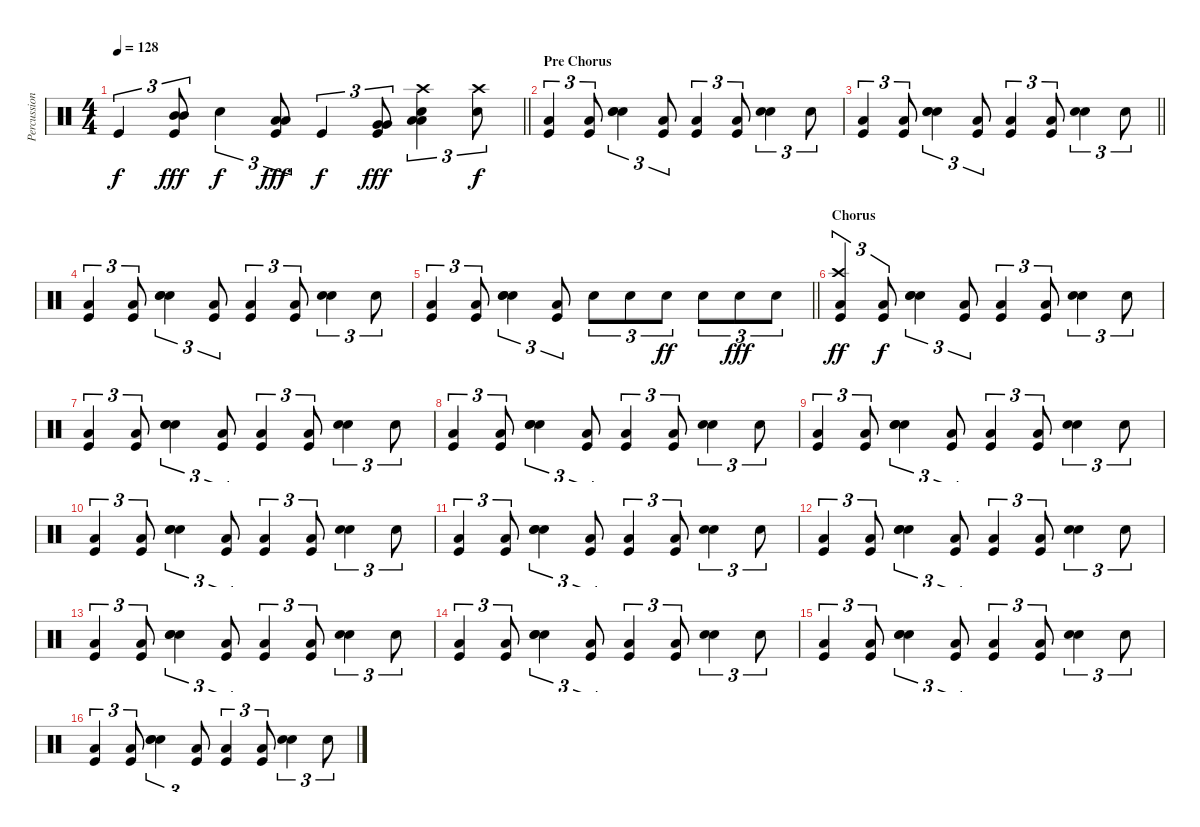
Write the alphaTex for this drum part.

\track ("Percussion" "Percussion") {instrument percussion}
\staff {score}
\articulation defaults
\ts (4 4)
\tempo 128
\clef neutral
\barLineRight lightlight
\ks c "Kick (hit)".4{tu (3 2) dy f}
("Mid Tom (hit)" "Mid Tom (hit)" "Kick (hit)").8{tu (3 2) dy fff} "Hand Clap (hit)".4{tu (3 2) dy f} ("Low Tom (hit)" "Low Tom (hit)" "Kick (hit)").8{tu (3 2) dy fff} "Kick (hit)".4{tu (3 2) dy f} ("Very Low Tom (hit)" "Very Low Tom (hit)" "Kick (hit)").8{tu (3 2) dy fff} ("Crash high (hit)" "Hand Clap (hit)" "Low Floor Tom (hit)" "Low Floor Tom (hit)").4{tu (3 2)} ("Crash high (hit)" "Hand Clap (hit)").8{tu (3 2) dy f} |
\section ("" "Pre Chorus")
("Low Floor Tom (hit)" "Kick (hit)").4{tu (3 2)} ("Low Floor Tom (hit)" "Kick (hit)").8{tu (3 2)} ("Hand Clap (hit)" "Electric Snare (hit)" "Snare (hit) 2").4{tu (3 2)} ("Low Floor Tom (hit)" "Kick (hit)").8{tu (3 2)} ("Low Floor Tom (hit)" "Kick (hit)").4{tu (3 2)} ("Low Floor Tom (hit)" "Kick (hit)").8{tu (3 2)} ("Hand Clap (hit)" "Electric Snare (hit)").4{tu (3 2)} "Hand Clap (hit)".8{tu (3 2)} |
\barLineRight lightlight
("Low Floor Tom (hit)" "Kick (hit)").4{tu (3 2)} ("Low Floor Tom (hit)" "Kick (hit)").8{tu (3 2)} ("Hand Clap (hit)" "Electric Snare (hit)" "Snare (hit) 2").4{tu (3 2)} ("Low Floor Tom (hit)" "Kick (hit)").8{tu (3 2)} ("Low Floor Tom (hit)" "Kick (hit)").4{tu (3 2)} ("Low Floor Tom (hit)" "Kick (hit)").8{tu (3 2)} ("Hand Clap (hit)" "Electric Snare (hit)").4{tu (3 2)} "Hand Clap (hit)".8{tu (3 2)} |
("Low Floor Tom (hit)" "Kick (hit)").4{tu (3 2)} ("Low Floor Tom (hit)" "Kick (hit)").8{tu (3 2)} ("Hand Clap (hit)" "Electric Snare (hit)" "Snare (hit) 2").4{tu (3 2)} ("Low Floor Tom (hit)" "Kick (hit)").8{tu (3 2)} ("Low Floor Tom (hit)" "Kick (hit)").4{tu (3 2)} ("Low Floor Tom (hit)" "Kick (hit)").8{tu (3 2)} ("Hand Clap (hit)" "Electric Snare (hit)").4{tu (3 2)} "Hand Clap (hit)".8{tu (3 2)} |
\barLineRight lightlight
("Low Floor Tom (hit)" "Kick (hit)").4{tu (3 2)} ("Low Floor Tom (hit)" "Kick (hit)").8{tu (3 2)} ("Hand Clap (hit)" "Electric Snare (hit)" "Snare (hit) 2").4{tu (3 2)} ("Low Floor Tom (hit)" "Kick (hit)").8{tu (3 2)} "Electric Snare (hit)".8{tu (3 2)} "Electric Snare (hit)".8{tu (3 2)} "Electric Snare (hit)".8{tu (3 2) dy ff} "Electric Snare (hit)".8{tu (3 2)} "Electric Snare (hit)".8{tu (3 2) dy fff} "Electric Snare (hit)".8{tu (3 2)} |
\section ("" "Chorus")
("Crash high (hit)" "Low Floor Tom (hit)" "Kick (hit)").4{tu (3 2) dy ff} ("Low Floor Tom (hit)" "Kick (hit)").8{tu (3 2) dy f} ("Hand Clap (hit)" "Electric Snare (hit)" "Snare (hit) 2").4{tu (3 2)} ("Low Floor Tom (hit)" "Kick (hit)").8{tu (3 2)} ("Low Floor Tom (hit)" "Kick (hit)").4{tu (3 2)} ("Low Floor Tom (hit)" "Kick (hit)").8{tu (3 2)} ("Hand Clap (hit)" "Electric Snare (hit)").4{tu (3 2)} "Hand Clap (hit)".8{tu (3 2)} |
("Low Floor Tom (hit)" "Kick (hit)").4{tu (3 2)} ("Low Floor Tom (hit)" "Kick (hit)").8{tu (3 2)} ("Hand Clap (hit)" "Electric Snare (hit)" "Snare (hit) 2").4{tu (3 2)} ("Low Floor Tom (hit)" "Kick (hit)").8{tu (3 2)} ("Low Floor Tom (hit)" "Kick (hit)").4{tu (3 2)} ("Low Floor Tom (hit)" "Kick (hit)").8{tu (3 2)} ("Hand Clap (hit)" "Electric Snare (hit)").4{tu (3 2)} "Hand Clap (hit)".8{tu (3 2)} |
("Low Floor Tom (hit)" "Kick (hit)").4{tu (3 2)} ("Low Floor Tom (hit)" "Kick (hit)").8{tu (3 2)} ("Hand Clap (hit)" "Electric Snare (hit)" "Snare (hit) 2").4{tu (3 2)} ("Low Floor Tom (hit)" "Kick (hit)").8{tu (3 2)} ("Low Floor Tom (hit)" "Kick (hit)").4{tu (3 2)} ("Low Floor Tom (hit)" "Kick (hit)").8{tu (3 2)} ("Hand Clap (hit)" "Electric Snare (hit)").4{tu (3 2)} "Hand Clap (hit)".8{tu (3 2)} |
("Low Floor Tom (hit)" "Kick (hit)").4{tu (3 2)} ("Low Floor Tom (hit)" "Kick (hit)").8{tu (3 2)} ("Hand Clap (hit)" "Electric Snare (hit)" "Snare (hit) 2").4{tu (3 2)} ("Low Floor Tom (hit)" "Kick (hit)").8{tu (3 2)} ("Low Floor Tom (hit)" "Kick (hit)").4{tu (3 2)} ("Low Floor Tom (hit)" "Kick (hit)").8{tu (3 2)} ("Hand Clap (hit)" "Electric Snare (hit)").4{tu (3 2)} "Hand Clap (hit)".8{tu (3 2)} |
("Low Floor Tom (hit)" "Kick (hit)").4{tu (3 2)} ("Low Floor Tom (hit)" "Kick (hit)").8{tu (3 2)} ("Hand Clap (hit)" "Electric Snare (hit)" "Snare (hit) 2").4{tu (3 2)} ("Low Floor Tom (hit)" "Kick (hit)").8{tu (3 2)} ("Low Floor Tom (hit)" "Kick (hit)").4{tu (3 2)} ("Low Floor Tom (hit)" "Kick (hit)").8{tu (3 2)} ("Hand Clap (hit)" "Electric Snare (hit)").4{tu (3 2)} "Hand Clap (hit)".8{tu (3 2)} |
("Low Floor Tom (hit)" "Kick (hit)").4{tu (3 2)} ("Low Floor Tom (hit)" "Kick (hit)").8{tu (3 2)} ("Hand Clap (hit)" "Electric Snare (hit)" "Snare (hit) 2").4{tu (3 2)} ("Low Floor Tom (hit)" "Kick (hit)").8{tu (3 2)} ("Low Floor Tom (hit)" "Kick (hit)").4{tu (3 2)} ("Low Floor Tom (hit)" "Kick (hit)").8{tu (3 2)} ("Hand Clap (hit)" "Electric Snare (hit)").4{tu (3 2)} "Hand Clap (hit)".8{tu (3 2)} |
("Low Floor Tom (hit)" "Kick (hit)").4{tu (3 2)} ("Low Floor Tom (hit)" "Kick (hit)").8{tu (3 2)} ("Hand Clap (hit)" "Electric Snare (hit)" "Snare (hit) 2").4{tu (3 2)} ("Low Floor Tom (hit)" "Kick (hit)").8{tu (3 2)} ("Low Floor Tom (hit)" "Kick (hit)").4{tu (3 2)} ("Low Floor Tom (hit)" "Kick (hit)").8{tu (3 2)} ("Hand Clap (hit)" "Electric Snare (hit)").4{tu (3 2)} "Hand Clap (hit)".8{tu (3 2)} |
("Low Floor Tom (hit)" "Kick (hit)").4{tu (3 2)} ("Low Floor Tom (hit)" "Kick (hit)").8{tu (3 2)} ("Hand Clap (hit)" "Electric Snare (hit)" "Snare (hit) 2").4{tu (3 2)} ("Low Floor Tom (hit)" "Kick (hit)").8{tu (3 2)} ("Low Floor Tom (hit)" "Kick (hit)").4{tu (3 2)} ("Low Floor Tom (hit)" "Kick (hit)").8{tu (3 2)} ("Hand Clap (hit)" "Electric Snare (hit)").4{tu (3 2)} "Hand Clap (hit)".8{tu (3 2)} |
("Low Floor Tom (hit)" "Kick (hit)").4{tu (3 2)} ("Low Floor Tom (hit)" "Kick (hit)").8{tu (3 2)} ("Hand Clap (hit)" "Electric Snare (hit)" "Snare (hit) 2").4{tu (3 2)} ("Low Floor Tom (hit)" "Kick (hit)").8{tu (3 2)} ("Low Floor Tom (hit)" "Kick (hit)").4{tu (3 2)} ("Low Floor Tom (hit)" "Kick (hit)").8{tu (3 2)} ("Hand Clap (hit)" "Electric Snare (hit)").4{tu (3 2)} "Hand Clap (hit)".8{tu (3 2)} |
("Low Floor Tom (hit)" "Kick (hit)").4{tu (3 2)} ("Low Floor Tom (hit)" "Kick (hit)").8{tu (3 2)} ("Hand Clap (hit)" "Electric Snare (hit)" "Snare (hit) 2").4{tu (3 2)} ("Low Floor Tom (hit)" "Kick (hit)").8{tu (3 2)} ("Low Floor Tom (hit)" "Kick (hit)").4{tu (3 2)} ("Low Floor Tom (hit)" "Kick (hit)").8{tu (3 2)} ("Hand Clap (hit)" "Electric Snare (hit)").4{tu (3 2)} "Hand Clap (hit)".8{tu (3 2)} |
("Low Floor Tom (hit)" "Kick (hit)").4{tu (3 2)} ("Low Floor Tom (hit)" "Kick (hit)").8{tu (3 2)} ("Hand Clap (hit)" "Electric Snare (hit)" "Snare (hit) 2").4{tu (3 2)} ("Low Floor Tom (hit)" "Kick (hit)").8{tu (3 2)} ("Low Floor Tom (hit)" "Kick (hit)").4{tu (3 2)} ("Low Floor Tom (hit)" "Kick (hit)").8{tu (3 2)} ("Hand Clap (hit)" "Electric Snare (hit)").4{tu (3 2)} "Hand Clap (hit)".8{tu (3 2)}
